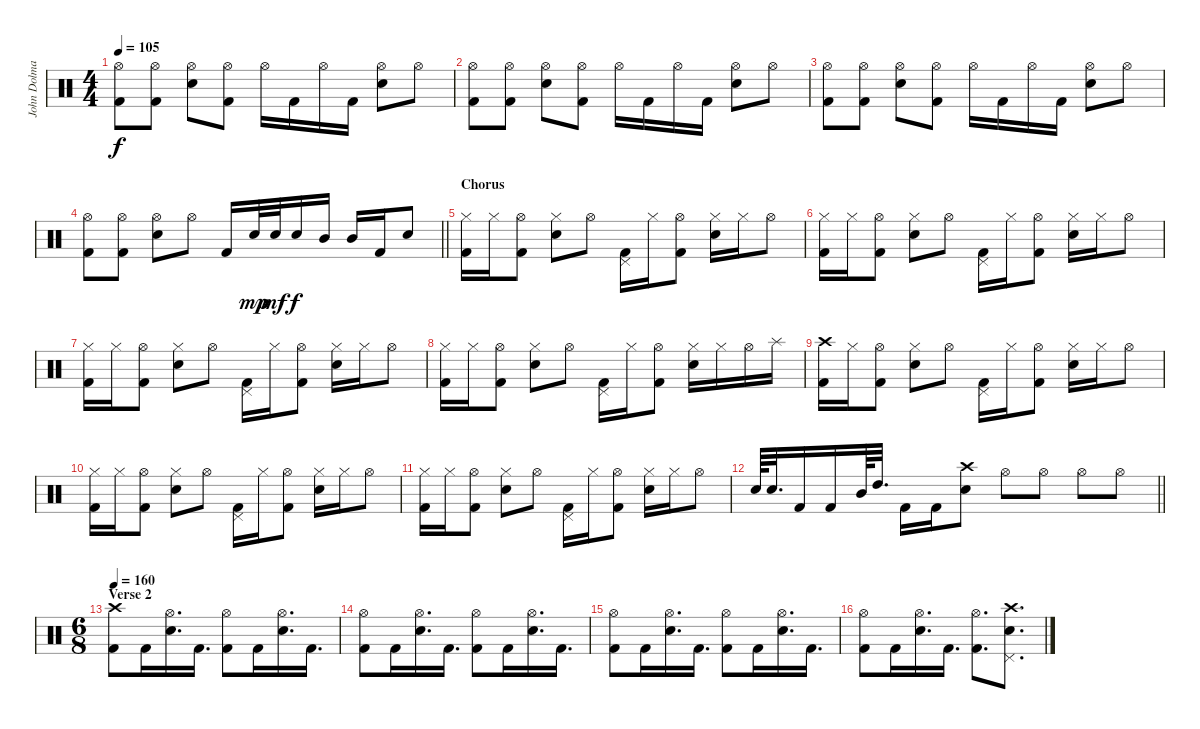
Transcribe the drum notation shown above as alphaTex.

\track ("John Dolmayan" "John Dolma") {instrument percussion}
\staff {score}
\articulation defaults
\ts (4 4)
\tempo 105
\clef neutral
\ks c
("Hi-Hat (open)" "Kick (hit) 2").8{dy f} ("Hi-Hat (open)" "Kick (hit) 2").8 ("Hi-Hat (open)" "Electric Snare (hit)").8 ("Hi-Hat (open)" "Kick (hit) 2").8 "Hi-Hat (open)".16 "Kick (hit) 2".16 "Hi-Hat (open)".16 "Kick (hit) 2".16 ("Hi-Hat (open)" "Electric Snare (hit)").8 "Hi-Hat (open)".8 |
("Hi-Hat (open)" "Kick (hit) 2").8 ("Hi-Hat (open)" "Kick (hit) 2").8 ("Hi-Hat (open)" "Electric Snare (hit)").8 ("Hi-Hat (open)" "Kick (hit) 2").8 "Hi-Hat (open)".16 "Kick (hit) 2".16 "Hi-Hat (open)".16 "Kick (hit) 2".16 ("Hi-Hat (open)" "Electric Snare (hit)").8 "Hi-Hat (open)".8 |
("Hi-Hat (open)" "Kick (hit) 2").8 ("Hi-Hat (open)" "Kick (hit) 2").8 ("Hi-Hat (open)" "Electric Snare (hit)").8 ("Hi-Hat (open)" "Kick (hit) 2").8 "Hi-Hat (open)".16 "Kick (hit) 2".16 "Hi-Hat (open)".16 "Kick (hit) 2".16 ("Hi-Hat (open)" "Electric Snare (hit)").8 "Hi-Hat (open)".8 |
\barLineRight lightlight
("Hi-Hat (open)" "Kick (hit) 2").8 ("Hi-Hat (open)" "Kick (hit) 2").8 ("Hi-Hat (open)" "Electric Snare (hit)").8 "Hi-Hat (open)".8 "Kick (hit) 2".16 "Electric Snare (hit)".32{dy mp} "Electric Snare (hit)".32{dy mf} "Electric Snare (hit)".16{dy f} "Mid Tom (hit)".16 "Mid Tom (hit)".16 "Kick (hit) 2".16 "Electric Snare (hit)".8 |
\section ("" "Chorus")
("Hi-Hat (closed)" "Kick (hit) 2").16 "Hi-Hat (closed)".16 ("Hi-Hat (open)" "Kick (hit) 2").8 ("Hi-Hat (closed)" "Electric Snare (hit)").8 "Hi-Hat (open)".8 ("Pedal Hi-Hat (hit)" "Kick (hit) 2").16 "Hi-Hat (closed)".16 ("Hi-Hat (open)" "Kick (hit) 2").8 ("Hi-Hat (closed)" "Electric Snare (hit)").16 "Hi-Hat (closed)".16 "Hi-Hat (open)".8 |
("Hi-Hat (closed)" "Kick (hit) 2").16 "Hi-Hat (closed)".16 ("Hi-Hat (open)" "Kick (hit) 2").8 ("Hi-Hat (closed)" "Electric Snare (hit)").8 "Hi-Hat (open)".8 ("Pedal Hi-Hat (hit)" "Kick (hit) 2").16 "Hi-Hat (closed)".16 ("Hi-Hat (open)" "Kick (hit) 2").8 ("Hi-Hat (closed)" "Electric Snare (hit)").16 "Hi-Hat (closed)".16 "Hi-Hat (open)".8 |
("Hi-Hat (closed)" "Kick (hit) 2").16 "Hi-Hat (closed)".16 ("Hi-Hat (open)" "Kick (hit) 2").8 ("Hi-Hat (closed)" "Electric Snare (hit)").8 "Hi-Hat (open)".8 ("Pedal Hi-Hat (hit)" "Kick (hit) 2").16 "Hi-Hat (closed)".16 ("Hi-Hat (open)" "Kick (hit) 2").8 ("Hi-Hat (closed)" "Electric Snare (hit)").16 "Hi-Hat (closed)".16 "Hi-Hat (open)".8 |
("Hi-Hat (closed)" "Kick (hit) 2").16 "Hi-Hat (closed)".16 ("Hi-Hat (open)" "Kick (hit) 2").8 ("Hi-Hat (closed)" "Electric Snare (hit)").8 "Hi-Hat (open)".8 ("Pedal Hi-Hat (hit)" "Kick (hit) 2").16 "Hi-Hat (closed)".16 ("Hi-Hat (open)" "Kick (hit) 2").8 ("Hi-Hat (closed)" "Electric Snare (hit)").16 "Hi-Hat (closed)".16 "Hi-Hat (open)".16 "Splash (hit)".16 |
("Crash high (hit)" "Kick (hit) 2").16 "Hi-Hat (closed)".16 ("Hi-Hat (open)" "Kick (hit) 2").8 ("Hi-Hat (closed)" "Electric Snare (hit)").8 "Hi-Hat (open)".8 ("Pedal Hi-Hat (hit)" "Kick (hit) 2").16 "Hi-Hat (closed)".16 ("Hi-Hat (open)" "Kick (hit) 2").8 ("Hi-Hat (closed)" "Electric Snare (hit)").16 "Hi-Hat (closed)".16 "Hi-Hat (open)".8 |
("Hi-Hat (closed)" "Kick (hit) 2").16 "Hi-Hat (closed)".16 ("Hi-Hat (open)" "Kick (hit) 2").8 ("Hi-Hat (closed)" "Electric Snare (hit)").8 "Hi-Hat (open)".8 ("Pedal Hi-Hat (hit)" "Kick (hit) 2").16 "Hi-Hat (closed)".16 ("Hi-Hat (open)" "Kick (hit) 2").8 ("Hi-Hat (closed)" "Electric Snare (hit)").16 "Hi-Hat (closed)".16 "Hi-Hat (open)".8 |
("Hi-Hat (closed)" "Kick (hit) 2").16 "Hi-Hat (closed)".16 ("Hi-Hat (open)" "Kick (hit) 2").8 ("Hi-Hat (closed)" "Electric Snare (hit)").8 "Hi-Hat (open)".8 ("Pedal Hi-Hat (hit)" "Kick (hit) 2").16 "Hi-Hat (closed)".16 ("Hi-Hat (open)" "Kick (hit) 2").8 ("Hi-Hat (closed)" "Electric Snare (hit)").16 "Hi-Hat (closed)".16 "Hi-Hat (open)".8 |
\barLineRight lightlight "Electric Snare (hit)".64 "Electric Snare (hit)".32{d} "Kick (hit) 2".16 "Kick (hit) 2".16 "Mid Tom (hit)".64 "High Tom (hit)".32{d} "Kick (hit) 2".16 "Kick (hit) 2".16
("Crash high (hit)" "Electric Snare (hit)").8 "Hi-Hat (open)".8 "Hi-Hat (open)".8 "Hi-Hat (open)".8 "Hi-Hat (open)".8 |
\ts (6 8)
\section ("" "Verse 2")
\tempo 160
("Crash high (hit)" "Kick (hit) 2").8 "Kick (hit) 2".16 ("Hi-Hat (open)" "Electric Snare (hit)").16{d} "Kick (hit) 2".16{d} ("Hi-Hat (open)" "Kick (hit) 2").8 "Kick (hit) 2".16 ("Hi-Hat (open)" "Electric Snare (hit)").16{d} "Kick (hit) 2".16{d} |
("Hi-Hat (open)" "Kick (hit) 2").8 "Kick (hit) 2".16 ("Hi-Hat (open)" "Electric Snare (hit)").16{d} "Kick (hit) 2".16{d} ("Hi-Hat (open)" "Kick (hit) 2").8 "Kick (hit) 2".16 ("Hi-Hat (open)" "Electric Snare (hit)").16{d} "Kick (hit) 2".16{d} |
("Hi-Hat (open)" "Kick (hit) 2").8 "Kick (hit) 2".16 ("Hi-Hat (open)" "Electric Snare (hit)").16{d} "Kick (hit) 2".16{d} ("Hi-Hat (open)" "Kick (hit) 2").8 "Kick (hit) 2".16 ("Hi-Hat (open)" "Electric Snare (hit)").16{d} "Kick (hit) 2".16{d} |
("Hi-Hat (open)" "Kick (hit) 2").8 "Kick (hit) 2".16 ("Hi-Hat (open)" "Electric Snare (hit)").16{d} "Kick (hit) 2".16{d} ("Hi-Hat (open)" "Kick (hit) 2").8{d} ("Crash high (hit)" "Pedal Hi-Hat (hit)" "Electric Snare (hit)").8{d}
